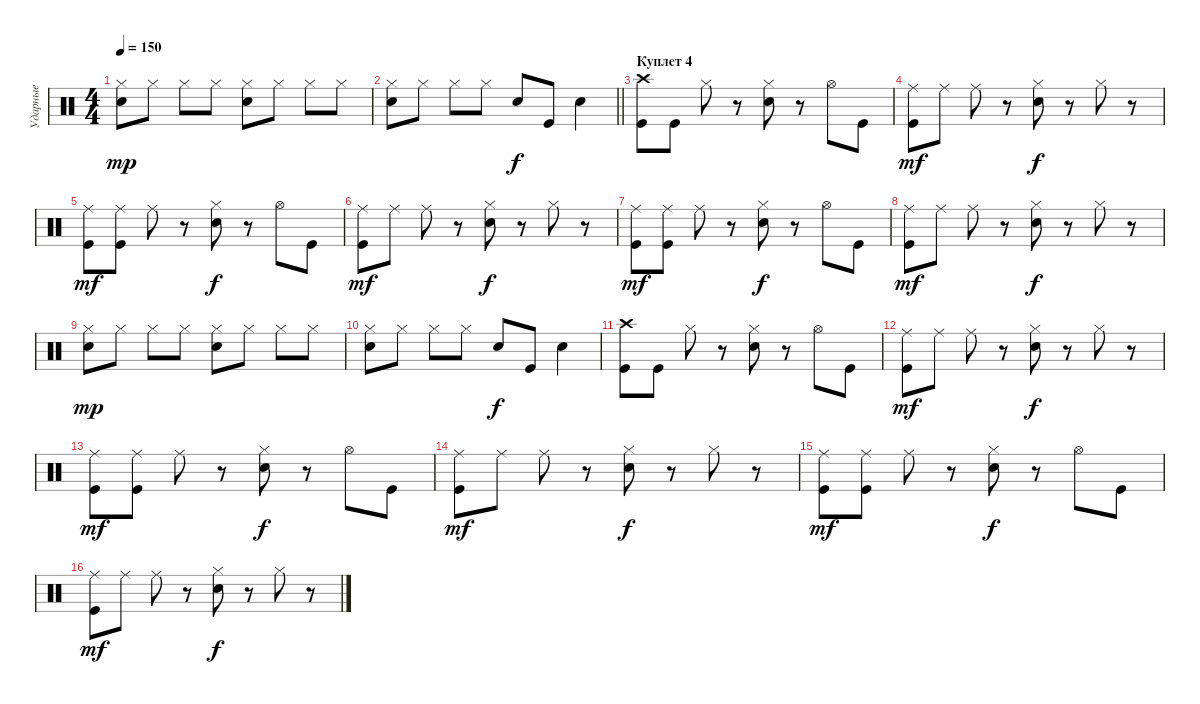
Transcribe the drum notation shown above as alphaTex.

\track ("Ударные" "Ударные") {instrument percussion}
\staff {score}
\articulation defaults
\ts (4 4)
\tempo 150
\clef neutral
\ks c
("Hi-Hat (closed)" "Snare (hit) 2").8{dy mp} "Hi-Hat (closed)".8 "Hi-Hat (closed)".8 "Hi-Hat (closed)".8 ("Hi-Hat (closed)" "Snare (hit) 2").8 "Hi-Hat (closed)".8 "Hi-Hat (closed)".8 "Hi-Hat (closed)".8 |
\barLineRight lightlight
("Hi-Hat (closed)" "Snare (hit) 2").8 "Hi-Hat (closed)".8 "Hi-Hat (closed)".8 "Hi-Hat (closed)".8 "Snare (hit) 2".8{dy f} "Kick (hit)".8 "Snare (hit) 2".4 |
\section ("" "Куплет 4")
("Crash high (hit)" "Kick (hit)").8 "Kick (hit)".8 "Hi-Hat (closed)".8 r.8 ("Hi-Hat (closed)" "Snare (hit) 2").8 r.8 "Hi-Hat (open)".8 "Kick (hit)".8 |
("Ride (middle)" "Kick (hit)").8{dy mf} "Ride (middle)".8 "Ride (middle)".8 r.8 ("Hi-Hat (closed)" "Snare (hit) 2").8{dy f} r.8 "Hi-Hat (closed)".8 r.8 |
("Ride (middle)" "Kick (hit)").8{dy mf} ("Ride (middle)" "Kick (hit)").8 "Ride (middle)".8 r.8 ("Hi-Hat (closed)" "Snare (hit) 2").8{dy f} r.8 "Hi-Hat (open)".8 "Kick (hit)".8 |
("Ride (middle)" "Kick (hit)").8{dy mf} "Ride (middle)".8 "Ride (middle)".8 r.8 ("Hi-Hat (closed)" "Snare (hit) 2").8{dy f} r.8 "Hi-Hat (closed)".8 r.8 |
("Ride (middle)" "Kick (hit)").8{dy mf} ("Ride (middle)" "Kick (hit)").8 "Ride (middle)".8 r.8 ("Hi-Hat (closed)" "Snare (hit) 2").8{dy f} r.8 "Hi-Hat (open)".8 "Kick (hit)".8 |
("Ride (middle)" "Kick (hit)").8{dy mf} "Ride (middle)".8 "Ride (middle)".8 r.8 ("Hi-Hat (closed)" "Snare (hit) 2").8{dy f} r.8 "Hi-Hat (closed)".8 r.8 |
("Hi-Hat (closed)" "Snare (hit) 2").8{dy mp} "Hi-Hat (closed)".8 "Hi-Hat (closed)".8 "Hi-Hat (closed)".8 ("Hi-Hat (closed)" "Snare (hit) 2").8 "Hi-Hat (closed)".8 "Hi-Hat (closed)".8 "Hi-Hat (closed)".8 |
("Hi-Hat (closed)" "Snare (hit) 2").8 "Hi-Hat (closed)".8 "Hi-Hat (closed)".8 "Hi-Hat (closed)".8 "Snare (hit) 2".8{dy f} "Kick (hit)".8 "Snare (hit) 2".4 |
("Crash high (hit)" "Kick (hit)").8 "Kick (hit)".8 "Hi-Hat (closed)".8 r.8 ("Hi-Hat (closed)" "Snare (hit) 2").8 r.8 "Hi-Hat (open)".8 "Kick (hit)".8 |
("Ride (middle)" "Kick (hit)").8{dy mf} "Ride (middle)".8 "Ride (middle)".8 r.8 ("Hi-Hat (closed)" "Snare (hit) 2").8{dy f} r.8 "Hi-Hat (closed)".8 r.8 |
("Ride (middle)" "Kick (hit)").8{dy mf} ("Ride (middle)" "Kick (hit)").8 "Ride (middle)".8 r.8 ("Hi-Hat (closed)" "Snare (hit) 2").8{dy f} r.8 "Hi-Hat (open)".8 "Kick (hit)".8 |
("Ride (middle)" "Kick (hit)").8{dy mf} "Ride (middle)".8 "Ride (middle)".8 r.8 ("Hi-Hat (closed)" "Snare (hit) 2").8{dy f} r.8 "Hi-Hat (closed)".8 r.8 |
("Ride (middle)" "Kick (hit)").8{dy mf} ("Ride (middle)" "Kick (hit)").8 "Ride (middle)".8 r.8 ("Hi-Hat (closed)" "Snare (hit) 2").8{dy f} r.8 "Hi-Hat (open)".8 "Kick (hit)".8 |
("Ride (middle)" "Kick (hit)").8{dy mf} "Ride (middle)".8 "Ride (middle)".8 r.8 ("Hi-Hat (closed)" "Snare (hit) 2").8{dy f} r.8 "Hi-Hat (closed)".8 r.8
